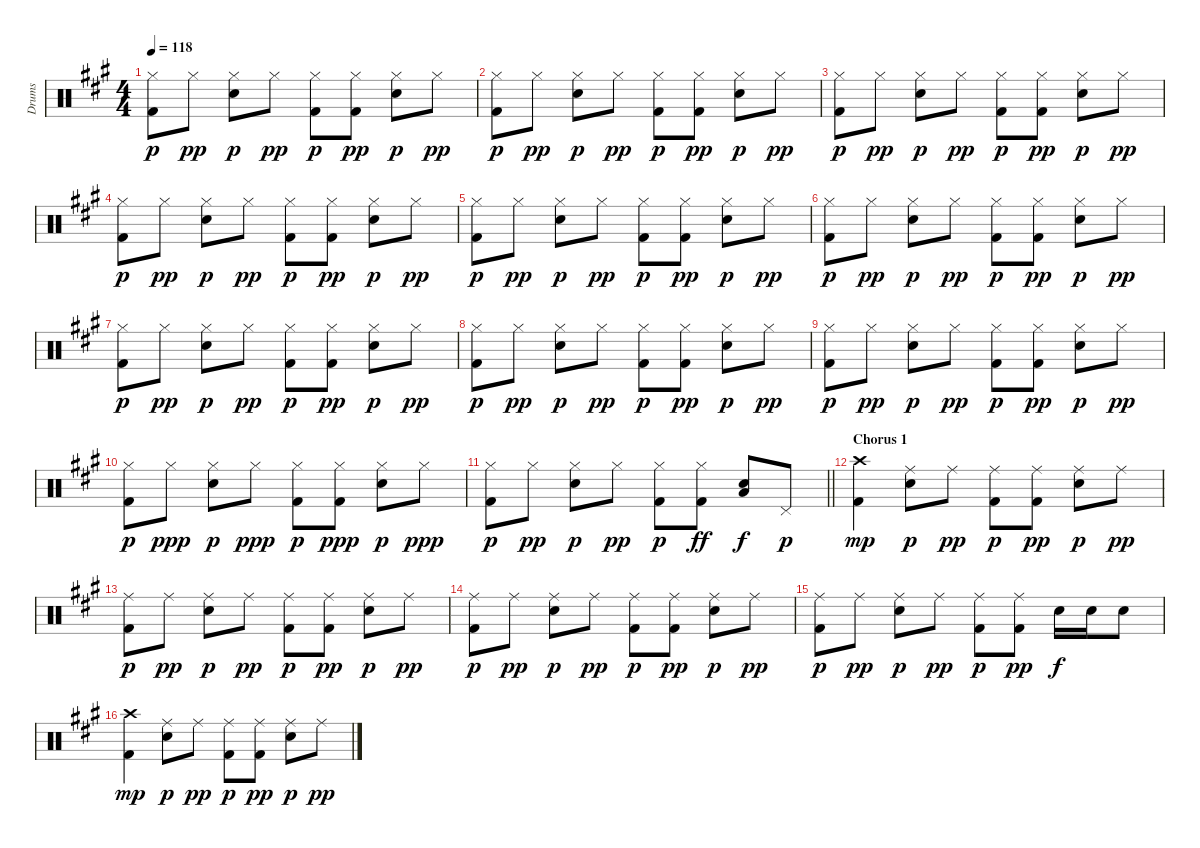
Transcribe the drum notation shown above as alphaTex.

\track ("Drums" "Drums") {instrument percussion}
\staff {score}
\articulation defaults
\ts (4 4)
\tempo 118
\clef neutral
\ks a
("Hi-Hat (closed)" "Kick (hit) 2").8{dy p} "Hi-Hat (closed)".8{dy pp} ("Hi-Hat (closed)" "Electric Snare (hit)").8{dy p} "Hi-Hat (closed)".8{dy pp} ("Hi-Hat (closed)" "Kick (hit) 2").8{dy p} ("Hi-Hat (closed)" "Kick (hit) 2").8{dy pp} ("Hi-Hat (closed)" "Electric Snare (hit)").8{dy p} "Hi-Hat (closed)".8{dy pp} |
("Hi-Hat (closed)" "Kick (hit) 2").8{dy p} "Hi-Hat (closed)".8{dy pp} ("Hi-Hat (closed)" "Electric Snare (hit)").8{dy p} "Hi-Hat (closed)".8{dy pp} ("Hi-Hat (closed)" "Kick (hit) 2").8{dy p} ("Hi-Hat (closed)" "Kick (hit) 2").8{dy pp} ("Hi-Hat (closed)" "Electric Snare (hit)").8{dy p} "Hi-Hat (closed)".8{dy pp} |
("Hi-Hat (closed)" "Kick (hit) 2").8{dy p} "Hi-Hat (closed)".8{dy pp} ("Hi-Hat (closed)" "Electric Snare (hit)").8{dy p} "Hi-Hat (closed)".8{dy pp} ("Hi-Hat (closed)" "Kick (hit) 2").8{dy p} ("Hi-Hat (closed)" "Kick (hit) 2").8{dy pp} ("Hi-Hat (closed)" "Electric Snare (hit)").8{dy p} "Hi-Hat (closed)".8{dy pp} |
("Hi-Hat (closed)" "Kick (hit) 2").8{dy p} "Hi-Hat (closed)".8{dy pp} ("Hi-Hat (closed)" "Electric Snare (hit)").8{dy p} "Hi-Hat (closed)".8{dy pp} ("Hi-Hat (closed)" "Kick (hit) 2").8{dy p} ("Hi-Hat (closed)" "Kick (hit) 2").8{dy pp} ("Hi-Hat (closed)" "Electric Snare (hit)").8{dy p} "Hi-Hat (closed)".8{dy pp} |
("Hi-Hat (closed)" "Kick (hit) 2").8{dy p} "Hi-Hat (closed)".8{dy pp} ("Hi-Hat (closed)" "Electric Snare (hit)").8{dy p} "Hi-Hat (closed)".8{dy pp} ("Hi-Hat (closed)" "Kick (hit) 2").8{dy p} ("Hi-Hat (closed)" "Kick (hit) 2").8{dy pp} ("Hi-Hat (closed)" "Electric Snare (hit)").8{dy p} "Hi-Hat (closed)".8{dy pp} |
("Hi-Hat (closed)" "Kick (hit) 2").8{dy p} "Hi-Hat (closed)".8{dy pp} ("Hi-Hat (closed)" "Electric Snare (hit)").8{dy p} "Hi-Hat (closed)".8{dy pp} ("Hi-Hat (closed)" "Kick (hit) 2").8{dy p} ("Hi-Hat (closed)" "Kick (hit) 2").8{dy pp} ("Hi-Hat (closed)" "Electric Snare (hit)").8{dy p} "Hi-Hat (closed)".8{dy pp} |
("Hi-Hat (closed)" "Kick (hit) 2").8{dy p} "Hi-Hat (closed)".8{dy pp} ("Hi-Hat (closed)" "Electric Snare (hit)").8{dy p} "Hi-Hat (closed)".8{dy pp} ("Hi-Hat (closed)" "Kick (hit) 2").8{dy p} ("Hi-Hat (closed)" "Kick (hit) 2").8{dy pp} ("Hi-Hat (closed)" "Electric Snare (hit)").8{dy p} "Hi-Hat (closed)".8{dy pp} |
("Hi-Hat (closed)" "Kick (hit) 2").8{dy p} "Hi-Hat (closed)".8{dy pp} ("Hi-Hat (closed)" "Electric Snare (hit)").8{dy p} "Hi-Hat (closed)".8{dy pp} ("Hi-Hat (closed)" "Kick (hit) 2").8{dy p} ("Hi-Hat (closed)" "Kick (hit) 2").8{dy pp} ("Hi-Hat (closed)" "Electric Snare (hit)").8{dy p} "Hi-Hat (closed)".8{dy pp} |
("Hi-Hat (closed)" "Kick (hit) 2").8{dy p} "Hi-Hat (closed)".8{dy pp} ("Hi-Hat (closed)" "Electric Snare (hit)").8{dy p} "Hi-Hat (closed)".8{dy pp} ("Hi-Hat (closed)" "Kick (hit) 2").8{dy p} ("Hi-Hat (closed)" "Kick (hit) 2").8{dy pp} ("Hi-Hat (closed)" "Electric Snare (hit)").8{dy p} "Hi-Hat (closed)".8{dy pp} |
("Hi-Hat (closed)" "Kick (hit) 2").8{dy p} "Hi-Hat (closed)".8{dy ppp} ("Hi-Hat (closed)" "Electric Snare (hit)").8{dy p} "Hi-Hat (closed)".8{dy ppp} ("Hi-Hat (closed)" "Kick (hit) 2").8{dy p} ("Hi-Hat (closed)" "Kick (hit) 2").8{dy ppp} ("Hi-Hat (closed)" "Electric Snare (hit)").8{dy p} "Hi-Hat (closed)".8{dy ppp} |
\barLineRight lightlight
("Hi-Hat (closed)" "Kick (hit) 2").8{dy p} "Hi-Hat (closed)".8{dy pp} ("Hi-Hat (closed)" "Electric Snare (hit)").8{dy p} "Hi-Hat (closed)".8{dy pp} ("Hi-Hat (closed)" "Kick (hit) 2").8{dy p} ("Hi-Hat (closed)" "Kick (hit) 2").8{dy ff} ("Low Tom (hit)" "Electric Snare (hit)").8{dy f} "Pedal Hi-Hat (hit)".8{dy p} |
\section ("" "Chorus 1")
("Crash high (hit)" "Kick (hit) 2").4{dy mp} ("Electric Snare (hit)" "Ride (middle)").8{dy p} "Ride (middle)".8{dy pp} ("Kick (hit) 2" "Ride (middle)").8{dy p} ("Kick (hit) 2" "Ride (middle)").8{dy pp} ("Electric Snare (hit)" "Ride (middle)").8{dy p} "Ride (middle)".8{dy pp} |
("Kick (hit) 2" "Ride (middle)").8{dy p} "Ride (middle)".8{dy pp} ("Electric Snare (hit)" "Ride (middle)").8{dy p} "Ride (middle)".8{dy pp} ("Kick (hit) 2" "Ride (middle)").8{dy p} ("Kick (hit) 2" "Ride (middle)").8{dy pp} ("Electric Snare (hit)" "Ride (middle)").8{dy p} "Ride (middle)".8{dy pp} |
("Kick (hit) 2" "Ride (middle)").8{dy p} "Ride (middle)".8{dy pp} ("Electric Snare (hit)" "Ride (middle)").8{dy p} "Ride (middle)".8{dy pp} ("Kick (hit) 2" "Ride (middle)").8{dy p} ("Kick (hit) 2" "Ride (middle)").8{dy pp} ("Electric Snare (hit)" "Ride (middle)").8{dy p} "Ride (middle)".8{dy pp} |
("Kick (hit) 2" "Ride (middle)").8{dy p} "Ride (middle)".8{dy pp} ("Electric Snare (hit)" "Ride (middle)").8{dy p} "Ride (middle)".8{dy pp} ("Kick (hit) 2" "Ride (middle)").8{dy p} ("Kick (hit) 2" "Ride (middle)").8{dy pp} "Electric Snare (hit)".16{dy f} "Electric Snare (hit)".16 "Electric Snare (hit)".8 |
("Crash high (hit)" "Kick (hit) 2").4{dy mp} ("Electric Snare (hit)" "Ride (middle)").8{dy p} "Ride (middle)".8{dy pp} ("Kick (hit) 2" "Ride (middle)").8{dy p} ("Kick (hit) 2" "Ride (middle)").8{dy pp} ("Electric Snare (hit)" "Ride (middle)").8{dy p} "Ride (middle)".8{dy pp}
